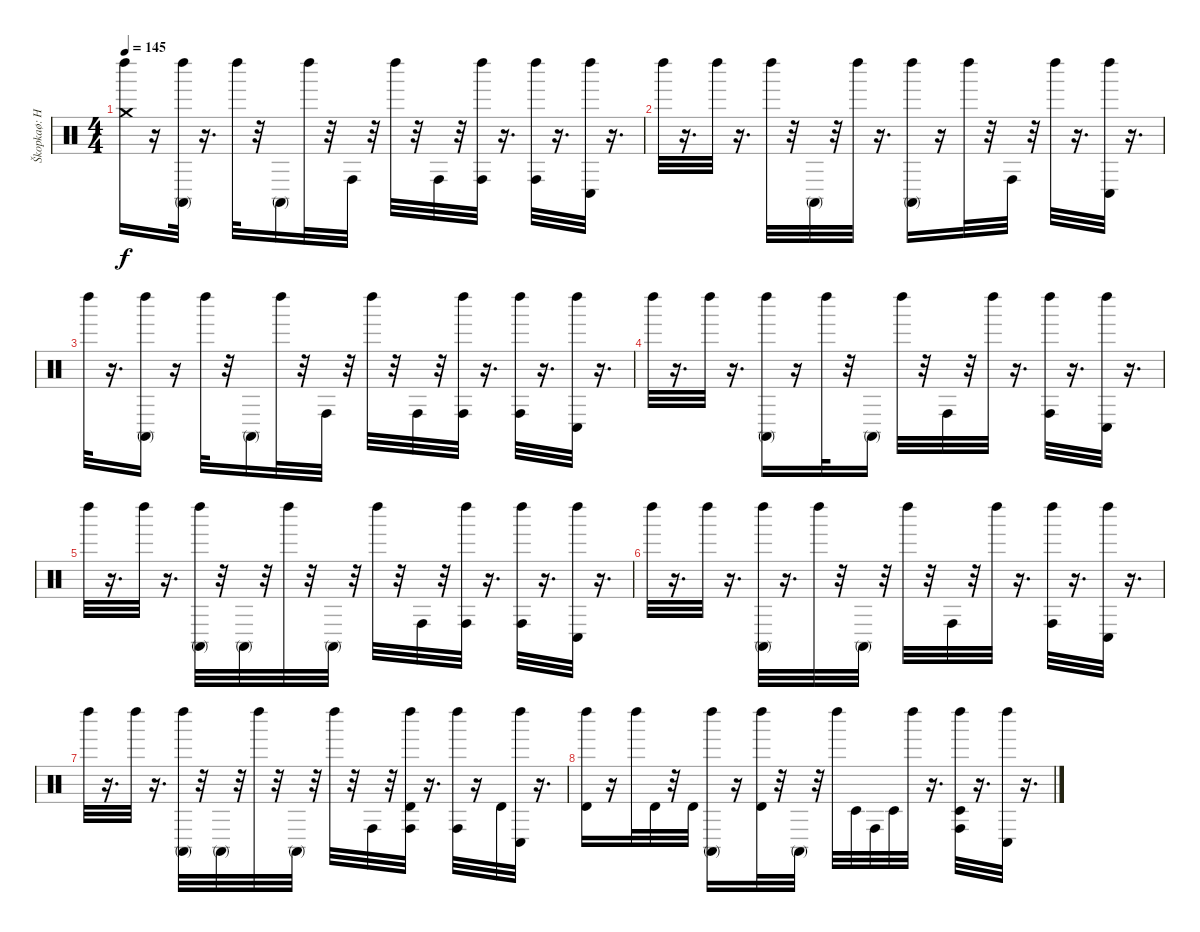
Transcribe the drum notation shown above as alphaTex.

\track ("Škopkaø: Hurvajs" "Škopkaø: H") {instrument percussion}
\staff {score}
\articulation defaults
\ts (4 4)
\tempo 145
\clef neutral
\ks c
("Crash medium (hit)" "Left Maraca (hit)").16{dy f} r.16 ("Conga high (mute)" "Left Maraca (hit)").32 r.16{d} "Left Maraca (hit)".32 r.32 "Conga high (mute)".16 "Left Maraca (hit)".32 r.32 "Conga high (hit)".32 r.32 "Left Maraca (hit)".32 r.32 "Conga high (hit)".32 r.32 ("Conga high (hit)" "Left Maraca (hit)").32 r.16{d} ("Conga high (hit)" "Left Maraca (hit)").32 r.16{d} ("Conga low (hit)" "Left Maraca (hit)").32 r.16{d} |
"Left Maraca (hit)".32 r.16{d} "Left Maraca (hit)".32 r.16{d} "Left Maraca (hit)".32 r.32 "Conga high (mute)".32 r.32 "Left Maraca (hit)".32 r.16{d} ("Conga high (mute)" "Left Maraca (hit)").16 r.16 "Left Maraca (hit)".32 r.32 "Conga high (hit)".32 r.32 "Left Maraca (hit)".32 r.16{d} ("Conga low (hit)" "Left Maraca (hit)").32 r.16{d} |
"Left Maraca (hit)".32 r.16{d} ("Conga high (mute)" "Left Maraca (hit)").16 r.16 "Left Maraca (hit)".32 r.32 "Conga high (mute)".16 "Left Maraca (hit)".32 r.32 "Conga high (hit)".32 r.32 "Left Maraca (hit)".32 r.32 "Conga high (hit)".32 r.32 ("Conga high (hit)" "Left Maraca (hit)").32 r.16{d} ("Conga high (hit)" "Left Maraca (hit)").32 r.16{d} ("Conga low (hit)" "Left Maraca (hit)").32 r.16{d} |
"Left Maraca (hit)".32 r.16{d} "Left Maraca (hit)".32 r.16{d} ("Conga high (mute)" "Left Maraca (hit)").16 r.16 "Left Maraca (hit)".32 r.32 "Conga high (mute)".16 "Left Maraca (hit)".32 r.32 "Conga high (hit)".32 r.32 "Left Maraca (hit)".32 r.16{d} ("Conga high (hit)" "Left Maraca (hit)").32 r.16{d} ("Conga low (hit)" "Left Maraca (hit)").32 r.16{d} |
"Left Maraca (hit)".32 r.16{d} "Left Maraca (hit)".32 r.16{d} ("Conga high (mute)" "Left Maraca (hit)").32 r.32 "Conga high (mute)".32 r.32 "Left Maraca (hit)".32 r.32 "Conga high (mute)".32 r.32 "Left Maraca (hit)".32 r.32 "Conga high (hit)".32 r.32 ("Conga high (hit)" "Left Maraca (hit)").32 r.16{d} ("Conga high (hit)" "Left Maraca (hit)").32 r.16{d} ("Conga low (hit)" "Left Maraca (hit)").32 r.16{d} |
"Left Maraca (hit)".32 r.16{d} "Left Maraca (hit)".32 r.16{d} ("Conga high (mute)" "Left Maraca (hit)").32 r.16{d} "Left Maraca (hit)".32 r.32 "Conga high (mute)".32 r.32 "Left Maraca (hit)".32 r.32 "Conga high (hit)".32 r.32 "Left Maraca (hit)".32 r.16{d} ("Conga high (hit)" "Left Maraca (hit)").32 r.16{d} ("Conga low (hit)" "Left Maraca (hit)").32 r.16{d} |
"Left Maraca (hit)".32 r.16{d} "Left Maraca (hit)".32 r.16{d} ("Conga high (mute)" "Left Maraca (hit)").32 r.32 "Conga high (mute)".32 r.32 "Left Maraca (hit)".32 r.32 "Conga high (mute)".32 r.32 "Left Maraca (hit)".32 r.32 "Conga high (hit)".32 r.32 ("Timbale high (hit)" "Conga high (hit)" "Left Maraca (hit)").32 r.16{d} ("Conga high (hit)" "Left Maraca (hit)").32 r.16 "Timbale high (hit)".32 ("Conga low (hit)" "Left Maraca (hit)").32 r.16{d} |
("Timbale high (hit)" "Left Maraca (hit)").16 r.16 "Left Maraca (hit)".32 "Timbale high (hit)".32 r.32 "Timbale high (hit)".32 ("Conga high (mute)" "Left Maraca (hit)").16 r.16 ("Left Maraca (hit)" "Timbale high (hit)").32 r.32 "Conga high (mute)".32 r.32 "Left Maraca (hit)".32 "Timbale low (hit)".32 "Conga high (hit)".32 "Timbale low (hit)".32 "Left Maraca (hit)".32 r.16{d} ("Timbale low (hit)" "Conga high (hit)" "Left Maraca (hit)").32 r.16{d} ("Conga low (hit)" "Left Maraca (hit)").32 r.16{d}
